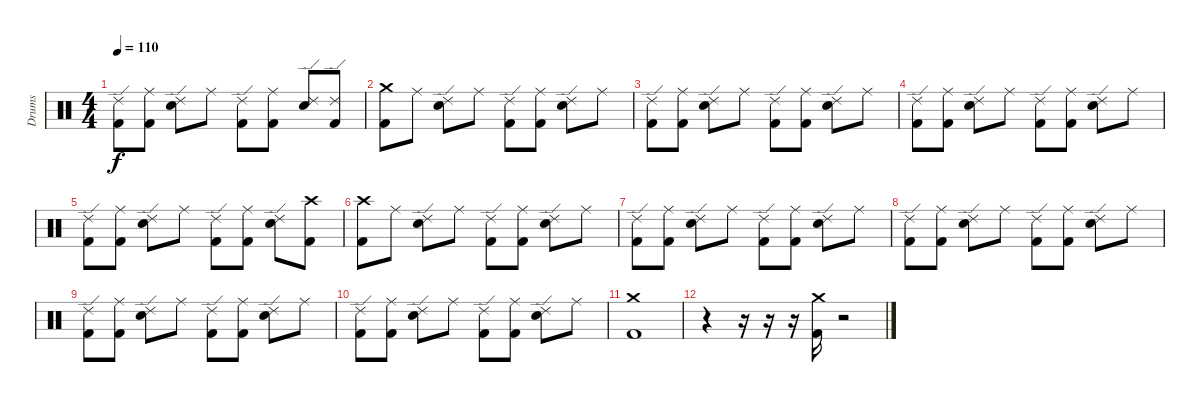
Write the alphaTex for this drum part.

\track ("Drums" "Drums") {instrument percussion}
\staff {score}
\articulation defaults
\ts (4 4)
\tempo 110
\clef neutral
\ks c
("Ride (edge) 2" "Kick (hit) 2").8{dy f} ("Ride (middle)" "Kick (hit) 2").8 ("Ride (edge) 2" "Electric Snare (hit)").8 "Ride (middle)".8 ("Ride (edge) 2" "Kick (hit) 2").8 ("Ride (middle)" "Kick (hit) 2").8 ("Ride (edge) 2" "Electric Snare (hit)").8 ("Ride (edge) 2" "Kick (hit) 2").8 |
("Crash medium (hit)" "Kick (hit) 2").8 "Ride (middle)".8 ("Ride (edge) 2" "Electric Snare (hit)").8 "Ride (middle)".8 ("Ride (edge) 2" "Kick (hit) 2").8 ("Ride (middle)" "Kick (hit) 2").8 ("Ride (edge) 2" "Electric Snare (hit)").8 "Ride (middle)".8 |
("Ride (edge) 2" "Kick (hit) 2").8 ("Ride (middle)" "Kick (hit) 2").8 ("Ride (edge) 2" "Electric Snare (hit)").8 "Ride (middle)".8 ("Ride (edge) 2" "Kick (hit) 2").8 ("Ride (middle)" "Kick (hit) 2").8 ("Ride (edge) 2" "Electric Snare (hit)").8 "Ride (middle)".8 |
("Ride (edge) 2" "Kick (hit) 2").8 ("Ride (middle)" "Kick (hit) 2").8 ("Ride (edge) 2" "Electric Snare (hit)").8 "Ride (middle)".8 ("Ride (edge) 2" "Kick (hit) 2").8 ("Ride (middle)" "Kick (hit) 2").8 ("Ride (edge) 2" "Electric Snare (hit)").8 "Ride (middle)".8 |
("Ride (edge) 2" "Kick (hit) 2").8 ("Ride (middle)" "Kick (hit) 2").8 ("Ride (edge) 2" "Electric Snare (hit)").8 "Ride (middle)".8 ("Ride (edge) 2" "Kick (hit) 2").8 ("Ride (middle)" "Kick (hit) 2").8 ("Ride (edge) 2" "Electric Snare (hit)").8 ("Crash high (hit)" "Kick (hit) 2").8 |
("Crash high (hit)" "Kick (hit) 2").8 "Ride (middle)".8 ("Ride (edge) 2" "Electric Snare (hit)").8 "Ride (middle)".8 ("Ride (edge) 2" "Kick (hit) 2").8 ("Ride (middle)" "Kick (hit) 2").8 ("Ride (edge) 2" "Electric Snare (hit)").8 "Ride (middle)".8 |
("Ride (edge) 2" "Kick (hit) 2").8 ("Ride (middle)" "Kick (hit) 2").8 ("Ride (edge) 2" "Electric Snare (hit)").8 "Ride (middle)".8 ("Ride (edge) 2" "Kick (hit) 2").8 ("Ride (middle)" "Kick (hit) 2").8 ("Ride (edge) 2" "Electric Snare (hit)").8 "Ride (middle)".8 |
("Ride (edge) 2" "Kick (hit) 2").8 ("Ride (middle)" "Kick (hit) 2").8 ("Ride (edge) 2" "Electric Snare (hit)").8 "Ride (middle)".8 ("Ride (edge) 2" "Kick (hit) 2").8 ("Ride (middle)" "Kick (hit) 2").8 ("Ride (edge) 2" "Electric Snare (hit)").8 "Ride (middle)".8 |
("Ride (edge) 2" "Kick (hit) 2").8 ("Ride (middle)" "Kick (hit) 2").8 ("Ride (edge) 2" "Electric Snare (hit)").8 "Ride (middle)".8 ("Ride (edge) 2" "Kick (hit) 2").8 ("Ride (middle)" "Kick (hit) 2").8 ("Ride (edge) 2" "Electric Snare (hit)").8 "Ride (middle)".8 |
("Ride (edge) 2" "Kick (hit) 2").8 ("Ride (middle)" "Kick (hit) 2").8 ("Ride (edge) 2" "Electric Snare (hit)").8 "Ride (middle)".8 ("Ride (edge) 2" "Kick (hit) 2").8 ("Ride (middle)" "Kick (hit) 2").8 ("Ride (edge) 2" "Electric Snare (hit)").8 "Ride (middle)".8 |
("Crash medium (hit)" "Kick (hit) 2").1 |
r.4 r.16 r.16 r.16 ("Crash medium (hit)" "Kick (hit) 2").16 r.2
